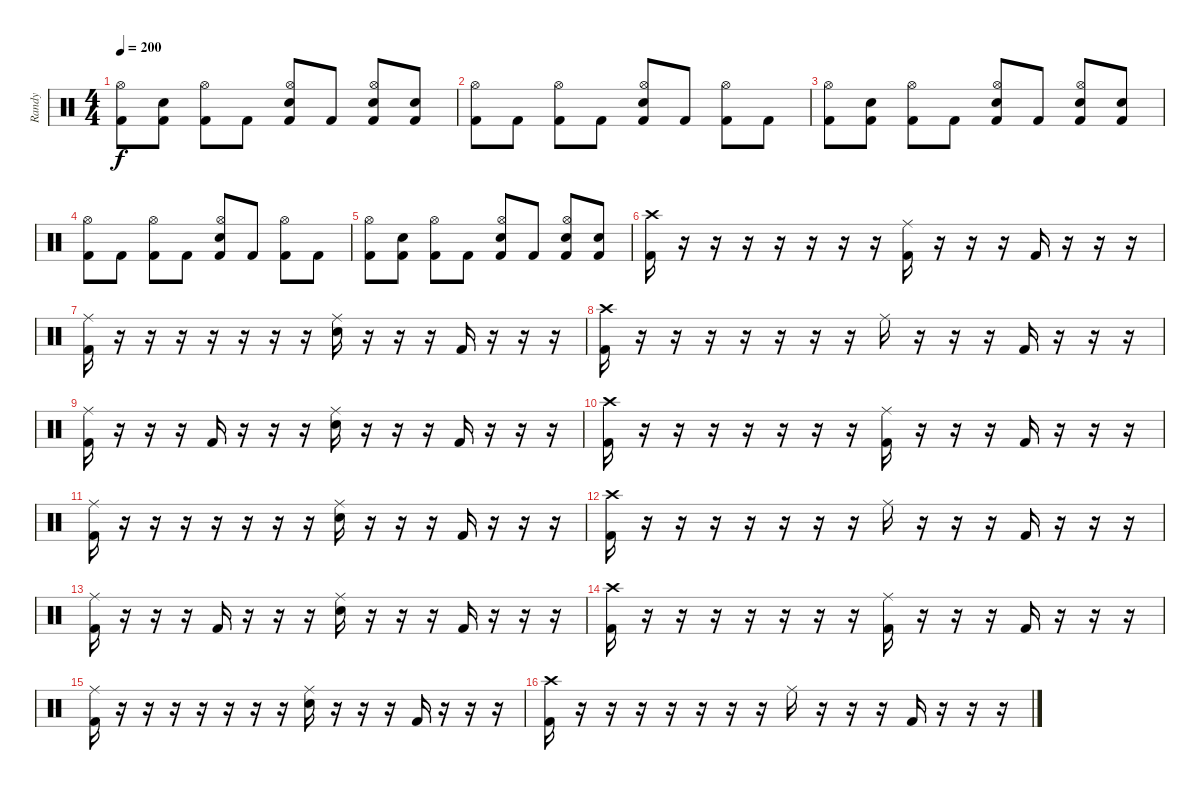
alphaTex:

\track ("Randy" "Randy") {instrument percussion}
\staff {score}
\articulation defaults
\ts (4 4)
\tempo 200
\clef neutral
\ks c
("Kick (hit) 2" "Hi-Hat (open)").8{dy f} ("Kick (hit) 2" "Electric Snare (hit)").8 ("Kick (hit) 2" "Hi-Hat (open)").8 "Kick (hit) 2".8 ("Kick (hit) 2" "Electric Snare (hit)" "Hi-Hat (open)").8 "Kick (hit) 2".8 ("Kick (hit) 2" "Electric Snare (hit)" "Hi-Hat (open)").8 ("Kick (hit) 2" "Electric Snare (hit)").8 |
("Kick (hit) 2" "Hi-Hat (open)").8 "Kick (hit) 2".8 ("Kick (hit) 2" "Hi-Hat (open)").8 "Kick (hit) 2".8 ("Kick (hit) 2" "Electric Snare (hit)" "Hi-Hat (open)").8 "Kick (hit) 2".8 ("Kick (hit) 2" "Hi-Hat (open)").8 "Kick (hit) 2".8 |
("Kick (hit) 2" "Hi-Hat (open)").8 ("Kick (hit) 2" "Electric Snare (hit)").8 ("Kick (hit) 2" "Hi-Hat (open)").8 "Kick (hit) 2".8 ("Kick (hit) 2" "Electric Snare (hit)" "Hi-Hat (open)").8 "Kick (hit) 2".8 ("Kick (hit) 2" "Electric Snare (hit)" "Hi-Hat (open)").8 ("Kick (hit) 2" "Electric Snare (hit)").8 |
("Kick (hit) 2" "Hi-Hat (open)").8 "Kick (hit) 2".8 ("Kick (hit) 2" "Hi-Hat (open)").8 "Kick (hit) 2".8 ("Kick (hit) 2" "Electric Snare (hit)" "Hi-Hat (open)").8 "Kick (hit) 2".8 ("Kick (hit) 2" "Hi-Hat (open)").8 "Kick (hit) 2".8 |
("Kick (hit) 2" "Hi-Hat (open)").8 ("Kick (hit) 2" "Electric Snare (hit)").8 ("Kick (hit) 2" "Hi-Hat (open)").8 "Kick (hit) 2".8 ("Kick (hit) 2" "Electric Snare (hit)" "Hi-Hat (open)").8 "Kick (hit) 2".8 ("Kick (hit) 2" "Electric Snare (hit)" "Hi-Hat (open)").8 ("Kick (hit) 2" "Electric Snare (hit)").8 |
("Kick (hit) 2" "Crash high (hit)").16 r.16 r.16 r.16 r.16 r.16 r.16 r.16 ("Kick (hit) 2" "Ride (middle)").16 r.16 r.16 r.16 "Kick (hit) 2".16 r.16 r.16 r.16 |
("Kick (hit) 2" "Ride (middle)").16 r.16 r.16 r.16 r.16 r.16 r.16 r.16 ("Electric Snare (hit)" "Ride (middle)").16 r.16 r.16 r.16 "Kick (hit) 2".16 r.16 r.16 r.16 |
("Kick (hit) 2" "Crash high (hit)").16 r.16 r.16 r.16 r.16 r.16 r.16 r.16 "Ride (middle)".16 r.16 r.16 r.16 "Kick (hit) 2".16 r.16 r.16 r.16 |
("Kick (hit) 2" "Ride (middle)").16 r.16 r.16 r.16 "Kick (hit) 2".16 r.16 r.16 r.16 ("Electric Snare (hit)" "Ride (middle)").16 r.16 r.16 r.16 "Kick (hit) 2".16 r.16 r.16 r.16 |
("Kick (hit) 2" "Crash high (hit)").16 r.16 r.16 r.16 r.16 r.16 r.16 r.16 ("Kick (hit) 2" "Ride (middle)").16 r.16 r.16 r.16 "Kick (hit) 2".16 r.16 r.16 r.16 |
("Kick (hit) 2" "Ride (middle)").16 r.16 r.16 r.16 r.16 r.16 r.16 r.16 ("Electric Snare (hit)" "Ride (middle)").16 r.16 r.16 r.16 "Kick (hit) 2".16 r.16 r.16 r.16 |
("Kick (hit) 2" "Crash high (hit)").16 r.16 r.16 r.16 r.16 r.16 r.16 r.16 "Ride (middle)".16 r.16 r.16 r.16 "Kick (hit) 2".16 r.16 r.16 r.16 |
("Kick (hit) 2" "Ride (middle)").16 r.16 r.16 r.16 "Kick (hit) 2".16 r.16 r.16 r.16 ("Electric Snare (hit)" "Ride (middle)").16 r.16 r.16 r.16 "Kick (hit) 2".16 r.16 r.16 r.16 |
("Kick (hit) 2" "Crash high (hit)").16 r.16 r.16 r.16 r.16 r.16 r.16 r.16 ("Kick (hit) 2" "Ride (middle)").16 r.16 r.16 r.16 "Kick (hit) 2".16 r.16 r.16 r.16 |
("Kick (hit) 2" "Ride (middle)").16 r.16 r.16 r.16 r.16 r.16 r.16 r.16 ("Electric Snare (hit)" "Ride (middle)").16 r.16 r.16 r.16 "Kick (hit) 2".16 r.16 r.16 r.16 |
("Kick (hit) 2" "Crash high (hit)").16 r.16 r.16 r.16 r.16 r.16 r.16 r.16 "Ride (middle)".16 r.16 r.16 r.16 "Kick (hit) 2".16 r.16 r.16 r.16
